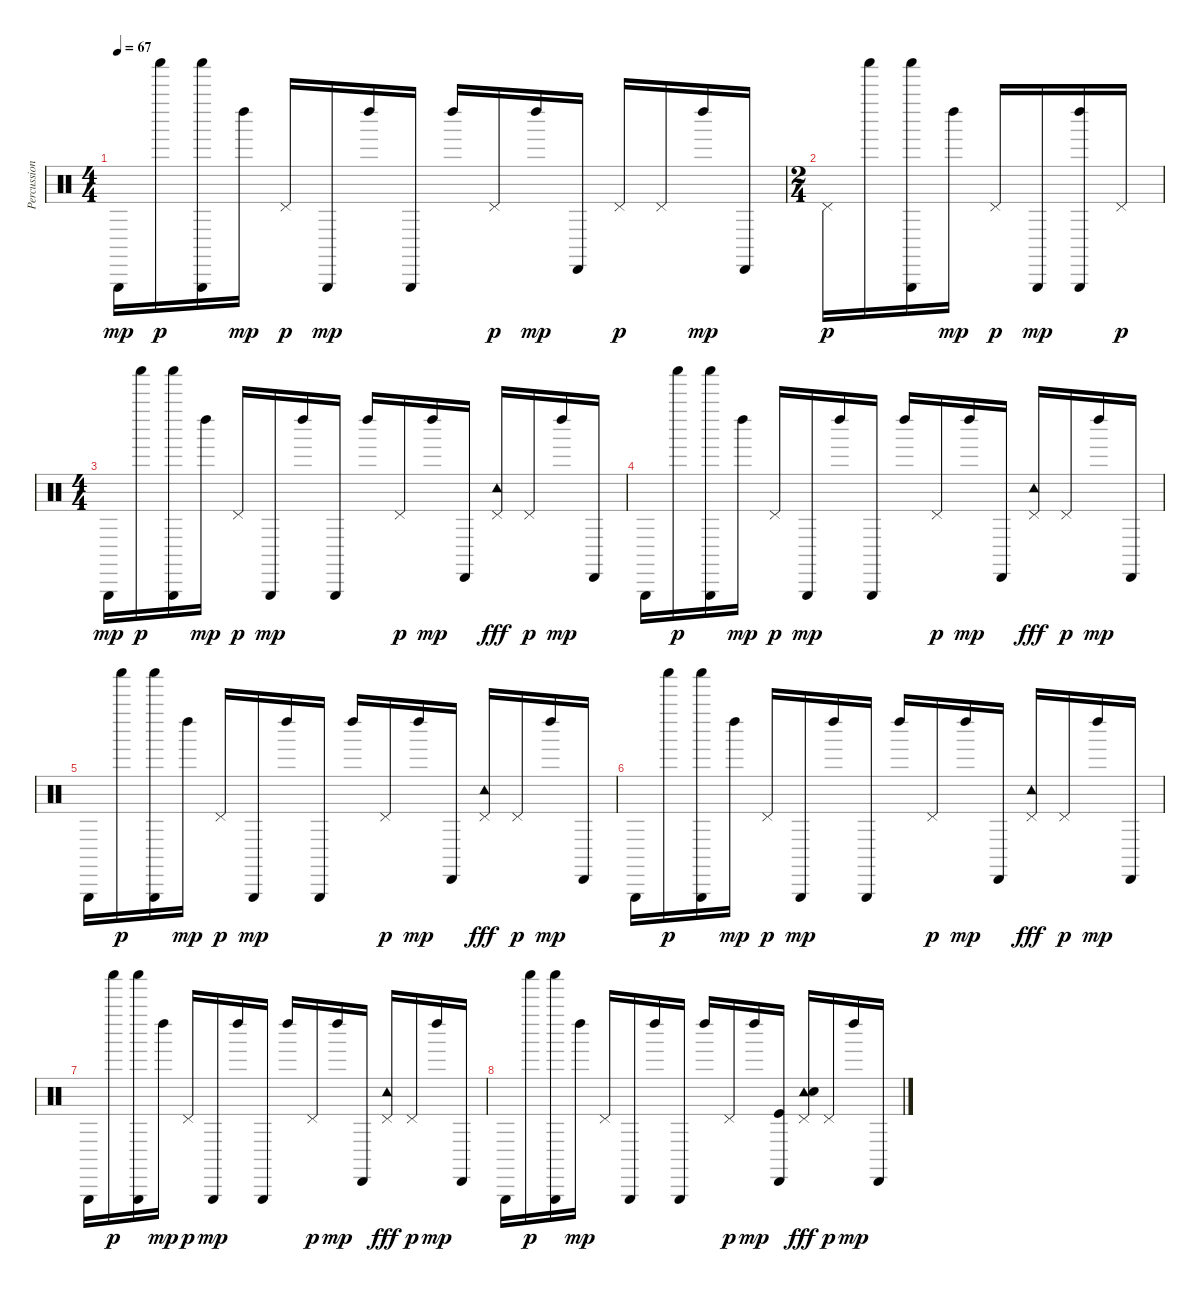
\track ("Percussion" "Percussion") {instrument percussion}
\staff {score}
\articulation defaults
\ts (4 4)
\tempo 67
\clef neutral
\ks c "Triangle (hit)".16{dy mp} "Shaker (hit)".16{dy p}
("Triangle (hit)" "Shaker (hit)").16 "Left Maraca (hit)".16{dy mp} "Pedal Hi-Hat (hit)".16{dy p} "Triangle (hit)".16{dy mp} "Left Maraca (hit)".16 "Triangle (hit)".16 "Left Maraca (hit)".16 "Pedal Hi-Hat (hit)".16{dy p} "Left Maraca (hit)".16{dy mp} "Cabasa (hit)".16 "Pedal Hi-Hat (hit)".16{dy p} "Pedal Hi-Hat (hit)".16 "Left Maraca (hit)".16{dy mp} "Cabasa (hit)".16 |
\ts (2 4)
"Pedal Hi-Hat (hit)".16{dy p} "Shaker (hit)".16 ("Triangle (hit)" "Shaker (hit)").16 "Left Maraca (hit)".16{dy mp} "Pedal Hi-Hat (hit)".16{dy p} "Triangle (hit)".16{dy mp} ("Left Maraca (hit)" "Triangle (hit)").16 "Pedal Hi-Hat (hit)".16{dy p} |
\ts (4 4)
"Triangle (hit)".16{dy mp} "Shaker (hit)".16{dy p} ("Triangle (hit)" "Shaker (hit)").16 "Left Maraca (hit)".16{dy mp} "Pedal Hi-Hat (hit)".16{dy p} "Triangle (hit)".16{dy mp} "Left Maraca (hit)".16 "Triangle (hit)".16 "Left Maraca (hit)".16 "Pedal Hi-Hat (hit)".16{dy p} "Left Maraca (hit)".16{dy mp} "Cabasa (hit)".16 ("Pedal Hi-Hat (hit)" "Tambourine (hit)").16{dy fff} "Pedal Hi-Hat (hit)".16{dy p} "Left Maraca (hit)".16{dy mp} "Cabasa (hit)".16 |
"Triangle (hit)".16 "Shaker (hit)".16{dy p} ("Triangle (hit)" "Shaker (hit)").16 "Left Maraca (hit)".16{dy mp} "Pedal Hi-Hat (hit)".16{dy p} "Triangle (hit)".16{dy mp} "Left Maraca (hit)".16 "Triangle (hit)".16 "Left Maraca (hit)".16 "Pedal Hi-Hat (hit)".16{dy p} "Left Maraca (hit)".16{dy mp} "Cabasa (hit)".16 ("Pedal Hi-Hat (hit)" "Tambourine (hit)").16{dy fff} "Pedal Hi-Hat (hit)".16{dy p} "Left Maraca (hit)".16{dy mp} "Cabasa (hit)".16 |
"Triangle (hit)".16 "Shaker (hit)".16{dy p} ("Triangle (hit)" "Shaker (hit)").16 "Left Maraca (hit)".16{dy mp} "Pedal Hi-Hat (hit)".16{dy p} "Triangle (hit)".16{dy mp} "Left Maraca (hit)".16 "Triangle (hit)".16 "Left Maraca (hit)".16 "Pedal Hi-Hat (hit)".16{dy p} "Left Maraca (hit)".16{dy mp} "Cabasa (hit)".16 ("Pedal Hi-Hat (hit)" "Tambourine (hit)").16{dy fff} "Pedal Hi-Hat (hit)".16{dy p} "Left Maraca (hit)".16{dy mp} "Cabasa (hit)".16 |
"Triangle (hit)".16 "Shaker (hit)".16{dy p} ("Triangle (hit)" "Shaker (hit)").16 "Left Maraca (hit)".16{dy mp} "Pedal Hi-Hat (hit)".16{dy p} "Triangle (hit)".16{dy mp} "Left Maraca (hit)".16 "Triangle (hit)".16 "Left Maraca (hit)".16 "Pedal Hi-Hat (hit)".16{dy p} "Left Maraca (hit)".16{dy mp} "Cabasa (hit)".16 ("Pedal Hi-Hat (hit)" "Tambourine (hit)").16{dy fff} "Pedal Hi-Hat (hit)".16{dy p} "Left Maraca (hit)".16{dy mp} "Cabasa (hit)".16 |
"Triangle (hit)".16 "Shaker (hit)".16{dy p} ("Triangle (hit)" "Shaker (hit)").16 "Left Maraca (hit)".16{dy mp} "Pedal Hi-Hat (hit)".16{dy p} "Triangle (hit)".16{dy mp} "Left Maraca (hit)".16 "Triangle (hit)".16 "Left Maraca (hit)".16 "Pedal Hi-Hat (hit)".16{dy p} "Left Maraca (hit)".16{dy mp} "Cabasa (hit)".16 ("Pedal Hi-Hat (hit)" "Tambourine (hit)").16{dy fff} "Pedal Hi-Hat (hit)".16{dy p} "Left Maraca (hit)".16{dy mp} "Cabasa (hit)".16 |
"Triangle (hit)".16 "Shaker (hit)".16{dy p} ("Triangle (hit)" "Shaker (hit)").16 "Left Maraca (hit)".16{dy mp} "Pedal Hi-Hat (hit)".16 "Triangle (hit)".16 "Left Maraca (hit)".16 "Triangle (hit)".16 "Left Maraca (hit)".16 "Pedal Hi-Hat (hit)".16{dy p} "Left Maraca (hit)".16{dy mp} ("Cabasa (hit)" "Kick (hit)").16 ("Pedal Hi-Hat (hit)" "Tambourine (hit)" "Snare (hit) 2").16{dy fff} "Pedal Hi-Hat (hit)".16{dy p} "Left Maraca (hit)".16{dy mp} "Cabasa (hit)".16
